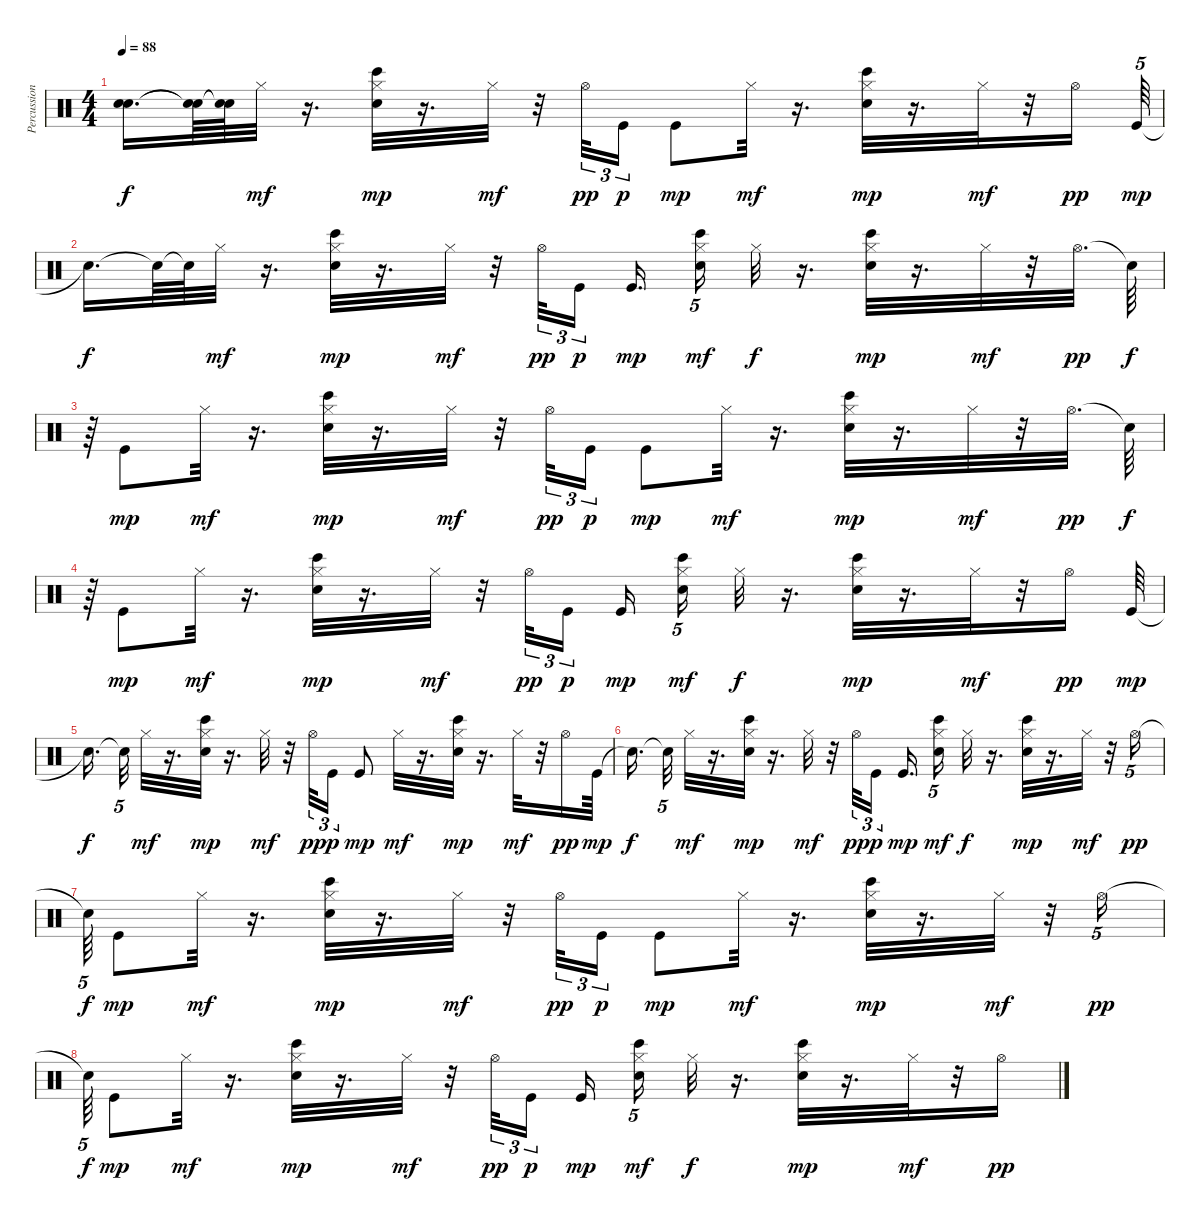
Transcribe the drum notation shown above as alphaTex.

\track ("Percussion" "Percussion") {instrument percussion}
\staff {score}
\articulation defaults
\ts (4 4)
\tempo 88
\clef neutral
\ks c
("Snare (hit)"{t} "Snare (hit)"{t}).16{d dy f} ("Snare (hit)"{t} "Snare (hit)"{t}).64 ("Snare (hit)"{t} "Snare (hit)"{t}).64 "Hi-Hat (closed)".32{dy mf} r.16{d} ("Bongo High (hit)" "Hi-Hat (closed)" "Electric Snare (hit)").32{dy mp} r.16{d} "Hi-Hat (closed)".32{dy mf} r.32 "Hi-Hat (open)".32{tu (3 2) dy pp} "Kick (hit)".16{tu (3 2) dy p} "Kick (hit)".8{dy mp} "Hi-Hat (closed)".32{dy mf} r.16{d} ("Bongo High (hit)" "Hi-Hat (closed)" "Electric Snare (hit)").32{dy mp} r.16{d} "Hi-Hat (closed)".32{dy mf} r.32 "Hi-Hat (open)".16{dy pp} "Kick (hit)".64{tu (5 4) dy mp} |
"Snare (hit)"{t}.16{d dy f} "Snare (hit)"{t}.64 "Snare (hit)"{t}.64 "Hi-Hat (closed)".32{dy mf} r.16{d} ("Bongo High (hit)" "Hi-Hat (closed)" "Electric Snare (hit)").32{dy mp} r.16{d} "Hi-Hat (closed)".32{dy mf} r.32 "Hi-Hat (open)".32{tu (3 2) dy pp} "Kick (hit)".16{tu (3 2) dy p} "Kick (hit)".16{d dy mp} ("Bongo High (hit)" "Electric Snare (hit)" "Hi-Hat (closed)").16{tu (5 4) dy mf} "Hi-Hat (closed)".32{dy f} r.16{d} ("Bongo High (hit)" "Hi-Hat (closed)" "Electric Snare (hit)").32{dy mp} r.16{d} "Hi-Hat (closed)".32{dy mf} r.32 "Hi-Hat (open)".32{d dy pp} "Snare (hit)"{t}.64{dy f} |
r.64 "Kick (hit)".8{dy mp} "Hi-Hat (closed)".32{dy mf} r.16{d} ("Bongo High (hit)" "Hi-Hat (closed)" "Electric Snare (hit)").32{dy mp} r.16{d} "Hi-Hat (closed)".32{dy mf} r.32 "Hi-Hat (open)".32{tu (3 2) dy pp} "Kick (hit)".16{tu (3 2) dy p} "Kick (hit)".8{dy mp} "Hi-Hat (closed)".32{dy mf} r.16{d} ("Bongo High (hit)" "Hi-Hat (closed)" "Electric Snare (hit)").32{dy mp} r.16{d} "Hi-Hat (closed)".32{dy mf} r.32 "Hi-Hat (open)".32{d dy pp} "Snare (hit)"{t}.64{dy f} |
r.64 "Kick (hit)".8{dy mp} "Hi-Hat (closed)".32{dy mf} r.16{d} ("Bongo High (hit)" "Hi-Hat (closed)" "Electric Snare (hit)").32{dy mp} r.16{d} "Hi-Hat (closed)".32{dy mf} r.32 "Hi-Hat (open)".32{tu (3 2) dy pp} "Kick (hit)".16{tu (3 2) dy p} "Kick (hit)".16{dy mp} ("Bongo High (hit)" "Electric Snare (hit)" "Hi-Hat (closed)").16{tu (5 4) dy mf} "Hi-Hat (closed)".32{dy f} r.16{d} ("Bongo High (hit)" "Hi-Hat (closed)" "Electric Snare (hit)").32{dy mp} r.16{d} "Hi-Hat (closed)".32{dy mf} r.32 "Hi-Hat (open)".16{dy pp} "Kick (hit)".64{dy mp} |
"Snare (hit)"{t}.16{d dy f} "Snare (hit)"{t}.32{tu (5 4)} "Hi-Hat (closed)".32{dy mf} r.16{d} ("Bongo High (hit)" "Hi-Hat (closed)" "Electric Snare (hit)").32{dy mp} r.16{d} "Hi-Hat (closed)".32{dy mf} r.32 "Hi-Hat (open)".32{tu (3 2) dy pp} "Kick (hit)".16{tu (3 2) dy p} "Kick (hit)".8{dy mp} "Hi-Hat (closed)".32{dy mf} r.16{d} ("Bongo High (hit)" "Hi-Hat (closed)" "Electric Snare (hit)").32{dy mp} r.16{d} "Hi-Hat (closed)".32{dy mf} r.32 "Hi-Hat (open)".16{dy pp} "Kick (hit)".64{dy mp} |
"Snare (hit)"{t}.16{d dy f} "Snare (hit)"{t}.32{tu (5 4)} "Hi-Hat (closed)".32{dy mf} r.16{d} ("Bongo High (hit)" "Hi-Hat (closed)" "Electric Snare (hit)").32{dy mp} r.16{d} "Hi-Hat (closed)".32{dy mf} r.32 "Hi-Hat (open)".32{tu (3 2) dy pp} "Kick (hit)".16{tu (3 2) dy p} "Kick (hit)".16{d dy mp} ("Bongo High (hit)" "Electric Snare (hit)" "Hi-Hat (closed)").16{tu (5 4) dy mf} "Hi-Hat (closed)".32{dy f} r.16{d} ("Bongo High (hit)" "Hi-Hat (closed)" "Electric Snare (hit)").32{dy mp} r.16{d} "Hi-Hat (closed)".32{dy mf} r.32 "Hi-Hat (open)".16{tu (5 4) dy pp} |
"Snare (hit)"{t}.64{tu (5 4) dy f} "Kick (hit)".8{dy mp} "Hi-Hat (closed)".32{dy mf} r.16{d} ("Bongo High (hit)" "Hi-Hat (closed)" "Electric Snare (hit)").32{dy mp} r.16{d} "Hi-Hat (closed)".32{dy mf} r.32 "Hi-Hat (open)".32{tu (3 2) dy pp} "Kick (hit)".16{tu (3 2) dy p} "Kick (hit)".8{dy mp} "Hi-Hat (closed)".32{dy mf} r.16{d} ("Bongo High (hit)" "Hi-Hat (closed)" "Electric Snare (hit)").32{dy mp} r.16{d} "Hi-Hat (closed)".32{dy mf} r.32 "Hi-Hat (open)".16{tu (5 4) dy pp} |
"Snare (hit)"{t}.64{tu (5 4) dy f} "Kick (hit)".8{dy mp} "Hi-Hat (closed)".32{dy mf} r.16{d} ("Bongo High (hit)" "Hi-Hat (closed)" "Electric Snare (hit)").32{dy mp} r.16{d} "Hi-Hat (closed)".32{dy mf} r.32 "Hi-Hat (open)".32{tu (3 2) dy pp} "Kick (hit)".16{tu (3 2) dy p} "Kick (hit)".16{dy mp} ("Bongo High (hit)" "Electric Snare (hit)" "Hi-Hat (closed)").16{tu (5 4) dy mf} "Hi-Hat (closed)".32{dy f} r.16{d} ("Bongo High (hit)" "Hi-Hat (closed)" "Electric Snare (hit)").32{dy mp} r.16{d} "Hi-Hat (closed)".32{dy mf} r.32 "Hi-Hat (open)".16{dy pp}
